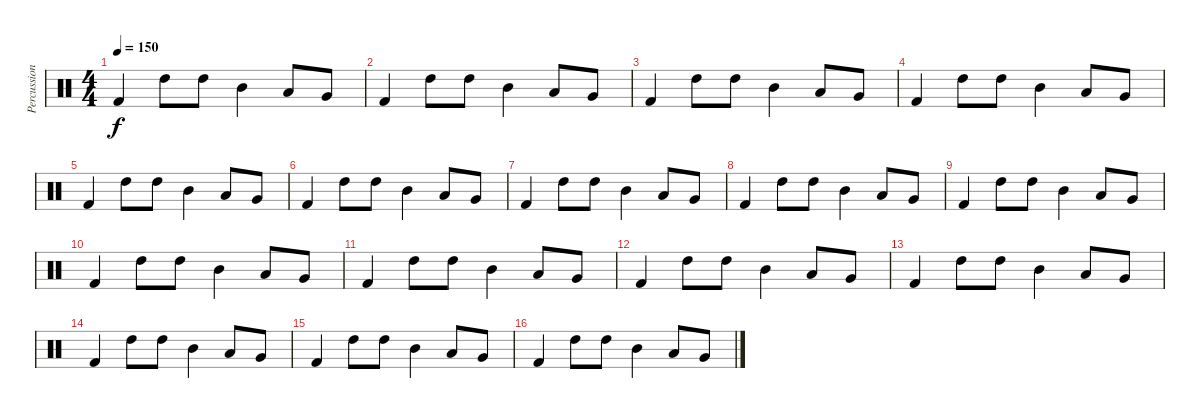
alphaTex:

\track ("Percussions" "Percussion") {instrument percussion}
\staff {score}
\articulation defaults
\ts (4 4)
\tempo 150
\clef neutral
\ks c "Kick (hit) 2".4{dy f} "High Tom (hit)".8 "High Tom (hit)".8 "Mid Tom (hit)".4 "Low Tom (hit)".8 "Very Low Tom (hit)".8
|
"Kick (hit) 2".4 "High Tom (hit)".8 "High Tom (hit)".8 "Mid Tom (hit)".4 "Low Tom (hit)".8 "Very Low Tom (hit)".8 |
"Kick (hit) 2".4 "High Tom (hit)".8 "High Tom (hit)".8 "Mid Tom (hit)".4 "Low Tom (hit)".8 "Very Low Tom (hit)".8 |
"Kick (hit) 2".4 "High Tom (hit)".8 "High Tom (hit)".8 "Mid Tom (hit)".4 "Low Tom (hit)".8 "Very Low Tom (hit)".8 |
"Kick (hit) 2".4 "High Tom (hit)".8 "High Tom (hit)".8 "Mid Tom (hit)".4 "Low Tom (hit)".8 "Very Low Tom (hit)".8 |
"Kick (hit) 2".4 "High Tom (hit)".8 "High Tom (hit)".8 "Mid Tom (hit)".4 "Low Tom (hit)".8 "Very Low Tom (hit)".8 |
"Kick (hit) 2".4 "High Tom (hit)".8 "High Tom (hit)".8 "Mid Tom (hit)".4 "Low Tom (hit)".8 "Very Low Tom (hit)".8 |
"Kick (hit) 2".4 "High Tom (hit)".8 "High Tom (hit)".8 "Mid Tom (hit)".4 "Low Tom (hit)".8 "Very Low Tom (hit)".8 |
"Kick (hit) 2".4 "High Tom (hit)".8 "High Tom (hit)".8 "Mid Tom (hit)".4 "Low Tom (hit)".8 "Very Low Tom (hit)".8 |
"Kick (hit) 2".4 "High Tom (hit)".8 "High Tom (hit)".8 "Mid Tom (hit)".4 "Low Tom (hit)".8 "Very Low Tom (hit)".8 |
"Kick (hit) 2".4 "High Tom (hit)".8 "High Tom (hit)".8 "Mid Tom (hit)".4 "Low Tom (hit)".8 "Very Low Tom (hit)".8 |
"Kick (hit) 2".4 "High Tom (hit)".8 "High Tom (hit)".8 "Mid Tom (hit)".4 "Low Tom (hit)".8 "Very Low Tom (hit)".8 |
"Kick (hit) 2".4 "High Tom (hit)".8 "High Tom (hit)".8 "Mid Tom (hit)".4 "Low Tom (hit)".8 "Very Low Tom (hit)".8 |
"Kick (hit) 2".4 "High Tom (hit)".8 "High Tom (hit)".8 "Mid Tom (hit)".4 "Low Tom (hit)".8 "Very Low Tom (hit)".8 |
"Kick (hit) 2".4 "High Tom (hit)".8 "High Tom (hit)".8 "Mid Tom (hit)".4 "Low Tom (hit)".8 "Very Low Tom (hit)".8 |
"Kick (hit) 2".4 "High Tom (hit)".8 "High Tom (hit)".8 "Mid Tom (hit)".4 "Low Tom (hit)".8 "Very Low Tom (hit)".8
